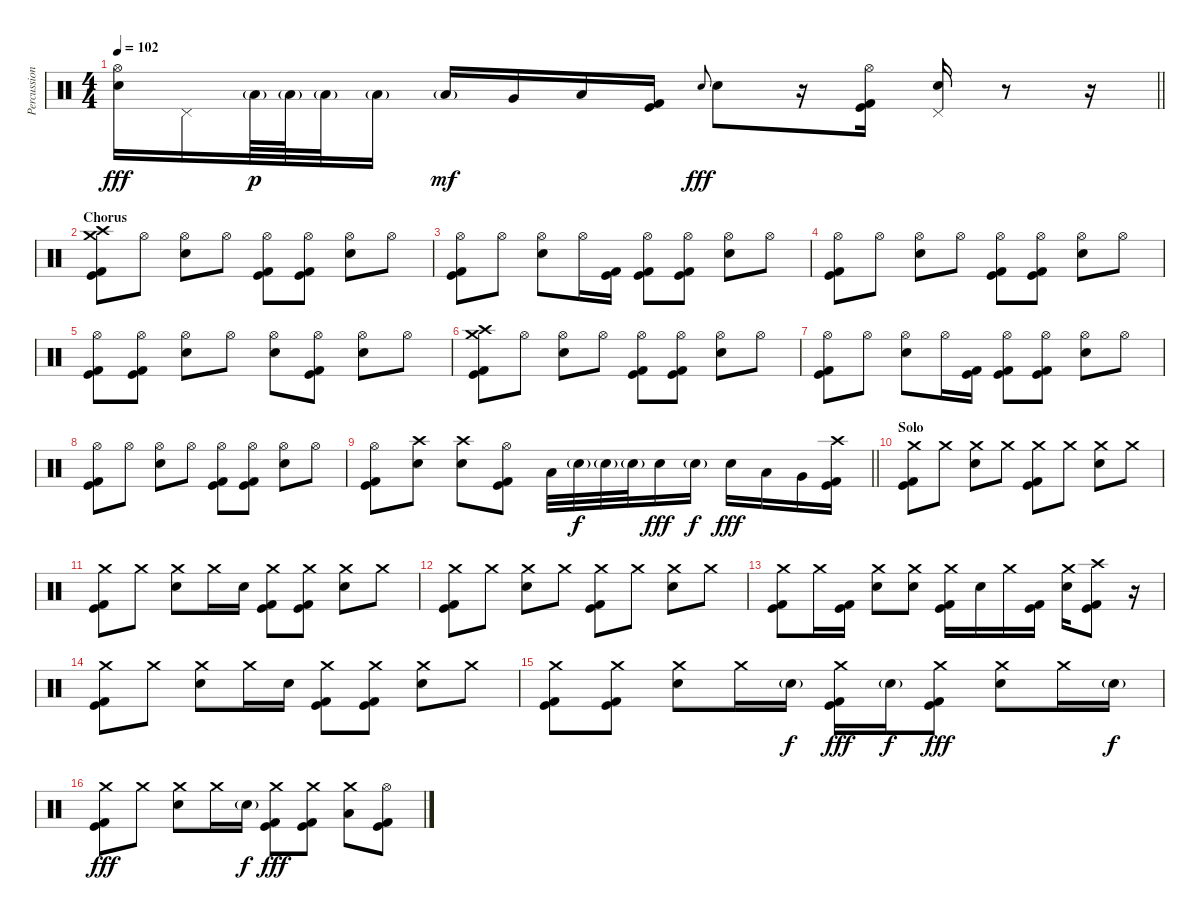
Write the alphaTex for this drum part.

\track ("Percussion" "Percussion") {instrument percussion}
\staff {score}
\articulation defaults
\ts (4 4)
\tempo 102
\clef neutral
\barLineRight lightlight
\ks c
("Hi-Hat (open)" "Electric Snare (hit)").16{dy fff} "Pedal Hi-Hat (hit)".16 "Low Tom (hit)"{g}.64{dy p} "Low Tom (hit)"{g}.64 "Low Tom (hit)"{g}.32 "Low Tom (hit)"{g}.16 "Low Tom (hit)"{g}.16{dy mf} "Very Low Tom (hit)".16 "Low Floor Tom (hit)".16 ("Kick (hit)" "Kick (hit) 2").16 "Electric Snare (hit)".8{gr onbeat dy fff} "Electric Snare (hit)".8 r.16 ("Hi-Hat (open)" "Kick (hit)" "Kick (hit) 2").16 ("Electric Snare (hit)" "Pedal Hi-Hat (hit)").16 r.8 r.16 |
\section ("" "Chorus")
("Crash medium (hit)" "Crash high (hit)" "Kick (hit)" "Kick (hit) 2").8 "Hi-Hat (open)".8 ("Hi-Hat (open)" "Electric Snare (hit)").8 "Hi-Hat (open)".8 ("Hi-Hat (open)" "Kick (hit)" "Kick (hit) 2").8 ("Hi-Hat (open)" "Kick (hit)" "Kick (hit) 2").8 ("Hi-Hat (open)" "Electric Snare (hit)").8 "Hi-Hat (open)".8 |
("Hi-Hat (open)" "Kick (hit)" "Kick (hit) 2").8 "Hi-Hat (open)".8 ("Hi-Hat (open)" "Electric Snare (hit)").8 "Hi-Hat (open)".16 ("Kick (hit)" "Kick (hit) 2").16 ("Hi-Hat (open)" "Kick (hit)" "Kick (hit) 2").8 ("Hi-Hat (open)" "Kick (hit)" "Kick (hit) 2").8 ("Hi-Hat (open)" "Electric Snare (hit)").8 "Hi-Hat (open)".8 |
("Hi-Hat (open)" "Kick (hit)" "Kick (hit) 2").8 "Hi-Hat (open)".8 ("Hi-Hat (open)" "Electric Snare (hit)").8 "Hi-Hat (open)".8 ("Hi-Hat (open)" "Kick (hit)" "Kick (hit) 2").8 ("Hi-Hat (open)" "Kick (hit)" "Kick (hit) 2").8 ("Hi-Hat (open)" "Electric Snare (hit)").8 "Hi-Hat (open)".8 |
("Hi-Hat (open)" "Kick (hit)" "Kick (hit) 2").8 ("Hi-Hat (open)" "Kick (hit)" "Kick (hit) 2").8 ("Hi-Hat (open)" "Electric Snare (hit)").8 "Hi-Hat (open)".8 ("Hi-Hat (open)" "Electric Snare (hit)").8 ("Hi-Hat (open)" "Kick (hit)" "Kick (hit) 2").8 ("Hi-Hat (open)" "Electric Snare (hit)").8 "Hi-Hat (open)".8 |
("Crash medium (hit)" "Crash high (hit)" "Kick (hit)" "Kick (hit) 2").8 "Hi-Hat (open)".8 ("Hi-Hat (open)" "Electric Snare (hit)").8 "Hi-Hat (open)".8 ("Hi-Hat (open)" "Kick (hit)" "Kick (hit) 2").8 ("Hi-Hat (open)" "Kick (hit)" "Kick (hit) 2").8 ("Hi-Hat (open)" "Electric Snare (hit)").8 "Hi-Hat (open)".8 |
("Hi-Hat (open)" "Kick (hit)" "Kick (hit) 2").8 "Hi-Hat (open)".8 ("Hi-Hat (open)" "Electric Snare (hit)").8 "Hi-Hat (open)".16 ("Kick (hit)" "Kick (hit) 2").16 ("Hi-Hat (open)" "Kick (hit)" "Kick (hit) 2").8 ("Hi-Hat (open)" "Kick (hit)" "Kick (hit) 2").8 ("Hi-Hat (open)" "Electric Snare (hit)").8 "Hi-Hat (open)".8 |
("Hi-Hat (open)" "Kick (hit)" "Kick (hit) 2").8 "Hi-Hat (open)".8 ("Hi-Hat (open)" "Electric Snare (hit)").8 "Hi-Hat (open)".8 ("Hi-Hat (open)" "Kick (hit)" "Kick (hit) 2").8 ("Hi-Hat (open)" "Kick (hit)" "Kick (hit) 2").8 ("Hi-Hat (open)" "Electric Snare (hit)").8 "Hi-Hat (open)".8 |
\barLineRight lightlight
("Hi-Hat (open)" "Kick (hit)" "Kick (hit) 2").8 ("Crash high (hit)" "Electric Snare (hit)").8 ("Crash high (hit)" "Electric Snare (hit)").8 ("Hi-Hat (open)" "Kick (hit)" "Kick (hit) 2").8 "Low Tom (hit)".32 "Electric Snare (hit)"{g}.32{dy f} "Electric Snare (hit)"{g}.32 "Electric Snare (hit)"{g}.32 "Electric Snare (hit)".16{dy fff} "Electric Snare (hit)"{g}.16{dy f} "Electric Snare (hit)".16{dy fff} "Low Tom (hit)".16 "Very Low Tom (hit)".16 ("Crash high (hit)" "Kick (hit)" "Kick (hit) 2").16 |
\section ("" "Solo")
("Crash medium (hit)" "Kick (hit)" "Kick (hit) 2").8 "Crash medium (hit)".8 ("Crash medium (hit)" "Electric Snare (hit)").8 "Crash medium (hit)".8 ("Crash medium (hit)" "Kick (hit)" "Kick (hit) 2").8 "Crash medium (hit)".8 ("Crash medium (hit)" "Electric Snare (hit)").8 "Crash medium (hit)".8 |
("Crash medium (hit)" "Kick (hit)" "Kick (hit) 2").8 "Crash medium (hit)".8 ("Crash medium (hit)" "Electric Snare (hit)").8 "Crash medium (hit)".16 "Electric Snare (hit)".16 ("Crash medium (hit)" "Kick (hit)" "Kick (hit) 2").8 ("Crash medium (hit)" "Kick (hit)" "Kick (hit) 2").8 ("Crash medium (hit)" "Electric Snare (hit)").8 "Crash medium (hit)".8 |
("Crash medium (hit)" "Kick (hit)" "Kick (hit) 2").8 "Crash medium (hit)".8 ("Crash medium (hit)" "Electric Snare (hit)").8 "Crash medium (hit)".8 ("Crash medium (hit)" "Kick (hit)" "Kick (hit) 2").8 "Crash medium (hit)".8 ("Crash medium (hit)" "Electric Snare (hit)").8 "Crash medium (hit)".8 |
("Crash medium (hit)" "Kick (hit)" "Kick (hit) 2").8 "Crash medium (hit)".16 ("Kick (hit)" "Kick (hit) 2").16 ("Crash medium (hit)" "Electric Snare (hit)").8 ("Crash medium (hit)" "Electric Snare (hit)").8 ("Crash medium (hit)" "Kick (hit)" "Kick (hit) 2").16 "Electric Snare (hit)".16 "Crash medium (hit)".16 ("Kick (hit)" "Kick (hit) 2").16 ("Crash medium (hit)" "Electric Snare (hit)").16 ("Crash high (hit)" "Kick (hit)" "Kick (hit) 2").8 r.16 |
("Crash medium (hit)" "Kick (hit)" "Kick (hit) 2").8 "Crash medium (hit)".8 ("Crash medium (hit)" "Electric Snare (hit)").8 "Crash medium (hit)".16 "Electric Snare (hit)".16 ("Crash medium (hit)" "Kick (hit)" "Kick (hit) 2").8 ("Crash medium (hit)" "Kick (hit)" "Kick (hit) 2").8 ("Crash medium (hit)" "Electric Snare (hit)").8 "Crash medium (hit)".8 |
("Crash medium (hit)" "Kick (hit)" "Kick (hit) 2").8 ("Crash medium (hit)" "Kick (hit)" "Kick (hit) 2").8 ("Crash medium (hit)" "Electric Snare (hit)").8 "Crash medium (hit)".16 "Electric Snare (hit)"{g}.16{dy f} ("Crash medium (hit)" "Kick (hit)" "Kick (hit) 2").16{dy fff} "Electric Snare (hit)"{g}.16{dy f} ("Crash medium (hit)" "Kick (hit)" "Kick (hit) 2").8{dy fff} ("Crash medium (hit)" "Electric Snare (hit)").8 "Crash medium (hit)".16 "Electric Snare (hit)"{g}.16{dy f} |
("Crash medium (hit)" "Kick (hit)" "Kick (hit) 2").8{dy fff} "Crash medium (hit)".8 ("Crash medium (hit)" "Electric Snare (hit)").8 "Crash medium (hit)".16 "Electric Snare (hit)"{g}.16{dy f} ("Crash medium (hit)" "Kick (hit)" "Kick (hit) 2").8{dy fff} ("Crash medium (hit)" "Kick (hit)" "Kick (hit) 2").8 ("Crash medium (hit)" "Low Tom (hit)").8 ("Hi-Hat (open)" "Kick (hit)" "Kick (hit) 2").8
